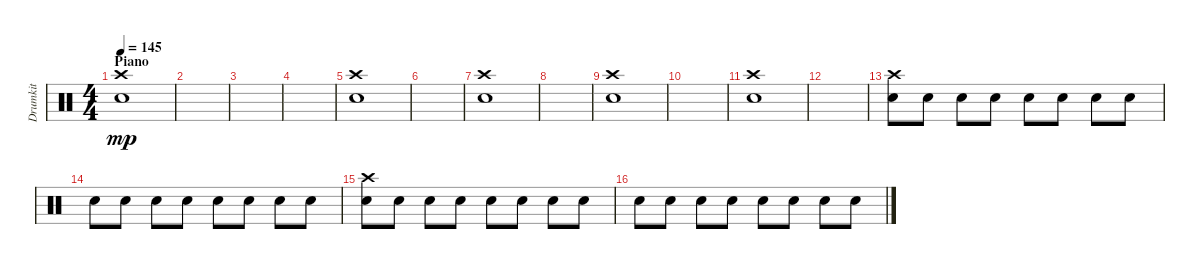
\track ("Drumkit" "Drumkit") {instrument percussion}
\staff {score}
\articulation defaults
\ts (4 4)
\section ("" "Piano")
\tempo 145
\clef neutral
\ks c
("Crash high (hit)" "Electric Snare (hit)").1{dy mp} |
|
|
|
("Crash high (hit)" "Electric Snare (hit)").1 |
|
("Crash high (hit)" "Electric Snare (hit)").1 |
|
("Crash high (hit)" "Electric Snare (hit)").1 |
|
("Crash high (hit)" "Electric Snare (hit)").1 |
|
("Crash high (hit)" "Snare (hit) 2").8 "Snare (hit) 2".8 "Snare (hit) 2".8 "Snare (hit) 2".8 "Snare (hit) 2".8 "Snare (hit) 2".8 "Snare (hit) 2".8 "Snare (hit) 2".8 |
"Snare (hit) 2".8 "Snare (hit) 2".8 "Snare (hit) 2".8 "Snare (hit) 2".8 "Snare (hit) 2".8 "Snare (hit) 2".8 "Snare (hit) 2".8 "Snare (hit) 2".8 |
("Crash high (hit)" "Snare (hit) 2").8 "Snare (hit) 2".8 "Snare (hit) 2".8 "Snare (hit) 2".8 "Snare (hit) 2".8 "Snare (hit) 2".8 "Snare (hit) 2".8 "Snare (hit) 2".8 |
"Snare (hit) 2".8 "Snare (hit) 2".8 "Snare (hit) 2".8 "Snare (hit) 2".8 "Snare (hit) 2".8 "Snare (hit) 2".8 "Snare (hit) 2".8 "Snare (hit) 2".8
